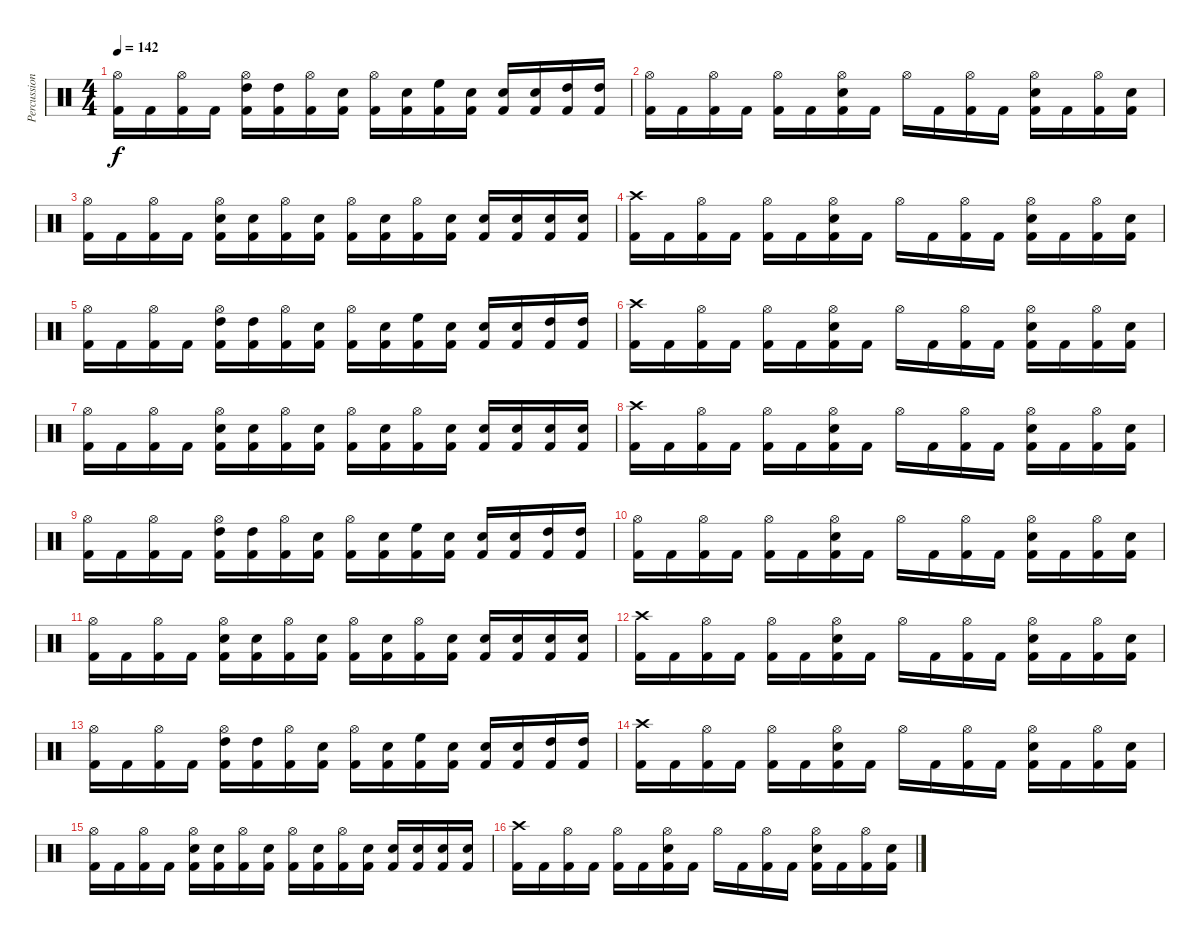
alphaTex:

\track ("Percussion" "Percussion") {instrument percussion}
\staff {score}
\articulation defaults
\ts (4 4)
\tempo 142
\clef neutral
\ks c
("Hi-Hat (open)" "Kick (hit) 2").16{dy f} "Kick (hit) 2".16 ("Hi-Hat (open)" "Kick (hit) 2").16 "Kick (hit) 2".16 ("High Tom (hit)" "Hi-Hat (open)" "Kick (hit) 2").16 ("High Tom (hit)" "Kick (hit) 2").16 ("Hi-Hat (open)" "Kick (hit) 2").16 ("Electric Snare (hit)" "Kick (hit) 2").16 ("Hi-Hat (open)" "Kick (hit) 2").16 ("Electric Snare (hit)" "Kick (hit) 2").16 ("High Floor Tom (hit)" "Kick (hit) 2").16 ("Electric Snare (hit)" "Kick (hit) 2").16 ("Electric Snare (hit)" "Kick (hit) 2").16 ("Electric Snare (hit)" "Kick (hit) 2").16 ("High Tom (hit)" "Kick (hit) 2").16 ("High Tom (hit)" "Kick (hit) 2").16 |
("Hi-Hat (open)" "Kick (hit) 2").16 "Kick (hit) 2".16 ("Hi-Hat (open)" "Kick (hit) 2").16 "Kick (hit) 2".16 ("Hi-Hat (open)" "Kick (hit) 2").16 "Kick (hit) 2".16 ("Hi-Hat (open)" "Electric Snare (hit)" "Kick (hit) 2").16 "Kick (hit) 2".16 "Hi-Hat (open)".16 "Kick (hit) 2".16 ("Hi-Hat (open)" "Kick (hit) 2").16 "Kick (hit) 2".16 ("Hi-Hat (open)" "Electric Snare (hit)" "Kick (hit) 2").16 "Kick (hit) 2".16 ("Hi-Hat (open)" "Kick (hit) 2").16 ("Electric Snare (hit)" "Kick (hit) 2").16 |
("Hi-Hat (open)" "Kick (hit) 2").16 "Kick (hit) 2".16 ("Hi-Hat (open)" "Kick (hit) 2").16 "Kick (hit) 2".16 ("Hi-Hat (open)" "Electric Snare (hit)" "Kick (hit) 2").16 ("Electric Snare (hit)" "Kick (hit) 2").16 ("Hi-Hat (open)" "Kick (hit) 2").16 ("Electric Snare (hit)" "Kick (hit) 2").16 ("Hi-Hat (open)" "Kick (hit) 2").16 ("Electric Snare (hit)" "Kick (hit) 2").16 ("Hi-Hat (open)" "Kick (hit) 2").16 ("Electric Snare (hit)" "Kick (hit) 2").16 ("Electric Snare (hit)" "Kick (hit) 2").16 ("Electric Snare (hit)" "Kick (hit) 2").16 ("Electric Snare (hit)" "Kick (hit) 2").16 ("Electric Snare (hit)" "Kick (hit) 2").16 |
("Crash high (hit)" "Kick (hit) 2").16 "Kick (hit) 2".16 ("Hi-Hat (open)" "Kick (hit) 2").16 "Kick (hit) 2".16 ("Hi-Hat (open)" "Kick (hit) 2").16 "Kick (hit) 2".16 ("Hi-Hat (open)" "Electric Snare (hit)" "Kick (hit) 2").16 "Kick (hit) 2".16 "Hi-Hat (open)".16 "Kick (hit) 2".16 ("Hi-Hat (open)" "Kick (hit) 2").16 "Kick (hit) 2".16 ("Hi-Hat (open)" "Electric Snare (hit)" "Kick (hit) 2").16 "Kick (hit) 2".16 ("Hi-Hat (open)" "Kick (hit) 2").16 ("Electric Snare (hit)" "Kick (hit) 2").16 |
("Hi-Hat (open)" "Kick (hit) 2").16 "Kick (hit) 2".16 ("Hi-Hat (open)" "Kick (hit) 2").16 "Kick (hit) 2".16 ("High Tom (hit)" "Hi-Hat (open)" "Kick (hit) 2").16 ("High Tom (hit)" "Kick (hit) 2").16 ("Hi-Hat (open)" "Kick (hit) 2").16 ("Electric Snare (hit)" "Kick (hit) 2").16 ("Hi-Hat (open)" "Kick (hit) 2").16 ("Electric Snare (hit)" "Kick (hit) 2").16 ("High Floor Tom (hit)" "Kick (hit) 2").16 ("Electric Snare (hit)" "Kick (hit) 2").16 ("Electric Snare (hit)" "Kick (hit) 2").16 ("Electric Snare (hit)" "Kick (hit) 2").16 ("High Tom (hit)" "Kick (hit) 2").16 ("High Tom (hit)" "Kick (hit) 2").16 |
("Crash high (hit)" "Kick (hit) 2").16 "Kick (hit) 2".16 ("Hi-Hat (open)" "Kick (hit) 2").16 "Kick (hit) 2".16 ("Hi-Hat (open)" "Kick (hit) 2").16 "Kick (hit) 2".16 ("Hi-Hat (open)" "Electric Snare (hit)" "Kick (hit) 2").16 "Kick (hit) 2".16 "Hi-Hat (open)".16 "Kick (hit) 2".16 ("Hi-Hat (open)" "Kick (hit) 2").16 "Kick (hit) 2".16 ("Hi-Hat (open)" "Electric Snare (hit)" "Kick (hit) 2").16 "Kick (hit) 2".16 ("Hi-Hat (open)" "Kick (hit) 2").16 ("Electric Snare (hit)" "Kick (hit) 2").16 |
("Hi-Hat (open)" "Kick (hit) 2").16 "Kick (hit) 2".16 ("Hi-Hat (open)" "Kick (hit) 2").16 "Kick (hit) 2".16 ("Hi-Hat (open)" "Electric Snare (hit)" "Kick (hit) 2").16 ("Electric Snare (hit)" "Kick (hit) 2").16 ("Hi-Hat (open)" "Kick (hit) 2").16 ("Electric Snare (hit)" "Kick (hit) 2").16 ("Hi-Hat (open)" "Kick (hit) 2").16 ("Electric Snare (hit)" "Kick (hit) 2").16 ("Hi-Hat (open)" "Kick (hit) 2").16 ("Electric Snare (hit)" "Kick (hit) 2").16 ("Electric Snare (hit)" "Kick (hit) 2").16 ("Electric Snare (hit)" "Kick (hit) 2").16 ("Electric Snare (hit)" "Kick (hit) 2").16 ("Electric Snare (hit)" "Kick (hit) 2").16 |
("Crash high (hit)" "Kick (hit) 2").16 "Kick (hit) 2".16 ("Hi-Hat (open)" "Kick (hit) 2").16 "Kick (hit) 2".16 ("Hi-Hat (open)" "Kick (hit) 2").16 "Kick (hit) 2".16 ("Hi-Hat (open)" "Electric Snare (hit)" "Kick (hit) 2").16 "Kick (hit) 2".16 "Hi-Hat (open)".16 "Kick (hit) 2".16 ("Hi-Hat (open)" "Kick (hit) 2").16 "Kick (hit) 2".16 ("Hi-Hat (open)" "Electric Snare (hit)" "Kick (hit) 2").16 "Kick (hit) 2".16 ("Hi-Hat (open)" "Kick (hit) 2").16 ("Electric Snare (hit)" "Kick (hit) 2").16 |
("Hi-Hat (open)" "Kick (hit) 2").16 "Kick (hit) 2".16 ("Hi-Hat (open)" "Kick (hit) 2").16 "Kick (hit) 2".16 ("High Tom (hit)" "Hi-Hat (open)" "Kick (hit) 2").16 ("High Tom (hit)" "Kick (hit) 2").16 ("Hi-Hat (open)" "Kick (hit) 2").16 ("Electric Snare (hit)" "Kick (hit) 2").16 ("Hi-Hat (open)" "Kick (hit) 2").16 ("Electric Snare (hit)" "Kick (hit) 2").16 ("High Floor Tom (hit)" "Kick (hit) 2").16 ("Electric Snare (hit)" "Kick (hit) 2").16 ("Electric Snare (hit)" "Kick (hit) 2").16 ("Electric Snare (hit)" "Kick (hit) 2").16 ("High Tom (hit)" "Kick (hit) 2").16 ("High Tom (hit)" "Kick (hit) 2").16 |
("Hi-Hat (open)" "Kick (hit) 2").16 "Kick (hit) 2".16 ("Hi-Hat (open)" "Kick (hit) 2").16 "Kick (hit) 2".16 ("Hi-Hat (open)" "Kick (hit) 2").16 "Kick (hit) 2".16 ("Hi-Hat (open)" "Electric Snare (hit)" "Kick (hit) 2").16 "Kick (hit) 2".16 "Hi-Hat (open)".16 "Kick (hit) 2".16 ("Hi-Hat (open)" "Kick (hit) 2").16 "Kick (hit) 2".16 ("Hi-Hat (open)" "Electric Snare (hit)" "Kick (hit) 2").16 "Kick (hit) 2".16 ("Hi-Hat (open)" "Kick (hit) 2").16 ("Electric Snare (hit)" "Kick (hit) 2").16 |
("Hi-Hat (open)" "Kick (hit) 2").16 "Kick (hit) 2".16 ("Hi-Hat (open)" "Kick (hit) 2").16 "Kick (hit) 2".16 ("Hi-Hat (open)" "Electric Snare (hit)" "Kick (hit) 2").16 ("Electric Snare (hit)" "Kick (hit) 2").16 ("Hi-Hat (open)" "Kick (hit) 2").16 ("Electric Snare (hit)" "Kick (hit) 2").16 ("Hi-Hat (open)" "Kick (hit) 2").16 ("Electric Snare (hit)" "Kick (hit) 2").16 ("Hi-Hat (open)" "Kick (hit) 2").16 ("Electric Snare (hit)" "Kick (hit) 2").16 ("Electric Snare (hit)" "Kick (hit) 2").16 ("Electric Snare (hit)" "Kick (hit) 2").16 ("Electric Snare (hit)" "Kick (hit) 2").16 ("Electric Snare (hit)" "Kick (hit) 2").16 |
("Crash high (hit)" "Kick (hit) 2").16 "Kick (hit) 2".16 ("Hi-Hat (open)" "Kick (hit) 2").16 "Kick (hit) 2".16 ("Hi-Hat (open)" "Kick (hit) 2").16 "Kick (hit) 2".16 ("Hi-Hat (open)" "Electric Snare (hit)" "Kick (hit) 2").16 "Kick (hit) 2".16 "Hi-Hat (open)".16 "Kick (hit) 2".16 ("Hi-Hat (open)" "Kick (hit) 2").16 "Kick (hit) 2".16 ("Hi-Hat (open)" "Electric Snare (hit)" "Kick (hit) 2").16 "Kick (hit) 2".16 ("Hi-Hat (open)" "Kick (hit) 2").16 ("Electric Snare (hit)" "Kick (hit) 2").16 |
("Hi-Hat (open)" "Kick (hit) 2").16 "Kick (hit) 2".16 ("Hi-Hat (open)" "Kick (hit) 2").16 "Kick (hit) 2".16 ("High Tom (hit)" "Hi-Hat (open)" "Kick (hit) 2").16 ("High Tom (hit)" "Kick (hit) 2").16 ("Hi-Hat (open)" "Kick (hit) 2").16 ("Electric Snare (hit)" "Kick (hit) 2").16 ("Hi-Hat (open)" "Kick (hit) 2").16 ("Electric Snare (hit)" "Kick (hit) 2").16 ("High Floor Tom (hit)" "Kick (hit) 2").16 ("Electric Snare (hit)" "Kick (hit) 2").16 ("Electric Snare (hit)" "Kick (hit) 2").16 ("Electric Snare (hit)" "Kick (hit) 2").16 ("High Tom (hit)" "Kick (hit) 2").16 ("High Tom (hit)" "Kick (hit) 2").16 |
("Crash high (hit)" "Kick (hit) 2").16 "Kick (hit) 2".16 ("Hi-Hat (open)" "Kick (hit) 2").16 "Kick (hit) 2".16 ("Hi-Hat (open)" "Kick (hit) 2").16 "Kick (hit) 2".16 ("Hi-Hat (open)" "Electric Snare (hit)" "Kick (hit) 2").16 "Kick (hit) 2".16 "Hi-Hat (open)".16 "Kick (hit) 2".16 ("Hi-Hat (open)" "Kick (hit) 2").16 "Kick (hit) 2".16 ("Hi-Hat (open)" "Electric Snare (hit)" "Kick (hit) 2").16 "Kick (hit) 2".16 ("Hi-Hat (open)" "Kick (hit) 2").16 ("Electric Snare (hit)" "Kick (hit) 2").16 |
("Hi-Hat (open)" "Kick (hit) 2").16 "Kick (hit) 2".16 ("Hi-Hat (open)" "Kick (hit) 2").16 "Kick (hit) 2".16 ("Hi-Hat (open)" "Electric Snare (hit)" "Kick (hit) 2").16 ("Electric Snare (hit)" "Kick (hit) 2").16 ("Hi-Hat (open)" "Kick (hit) 2").16 ("Electric Snare (hit)" "Kick (hit) 2").16 ("Hi-Hat (open)" "Kick (hit) 2").16 ("Electric Snare (hit)" "Kick (hit) 2").16 ("Hi-Hat (open)" "Kick (hit) 2").16 ("Electric Snare (hit)" "Kick (hit) 2").16 ("Electric Snare (hit)" "Kick (hit) 2").16 ("Electric Snare (hit)" "Kick (hit) 2").16 ("Electric Snare (hit)" "Kick (hit) 2").16 ("Electric Snare (hit)" "Kick (hit) 2").16 |
("Crash high (hit)" "Kick (hit) 2").16 "Kick (hit) 2".16 ("Hi-Hat (open)" "Kick (hit) 2").16 "Kick (hit) 2".16 ("Hi-Hat (open)" "Kick (hit) 2").16 "Kick (hit) 2".16 ("Hi-Hat (open)" "Electric Snare (hit)" "Kick (hit) 2").16 "Kick (hit) 2".16 "Hi-Hat (open)".16 "Kick (hit) 2".16 ("Hi-Hat (open)" "Kick (hit) 2").16 "Kick (hit) 2".16 ("Hi-Hat (open)" "Electric Snare (hit)" "Kick (hit) 2").16 "Kick (hit) 2".16 ("Hi-Hat (open)" "Kick (hit) 2").16 ("Electric Snare (hit)" "Kick (hit) 2").16
